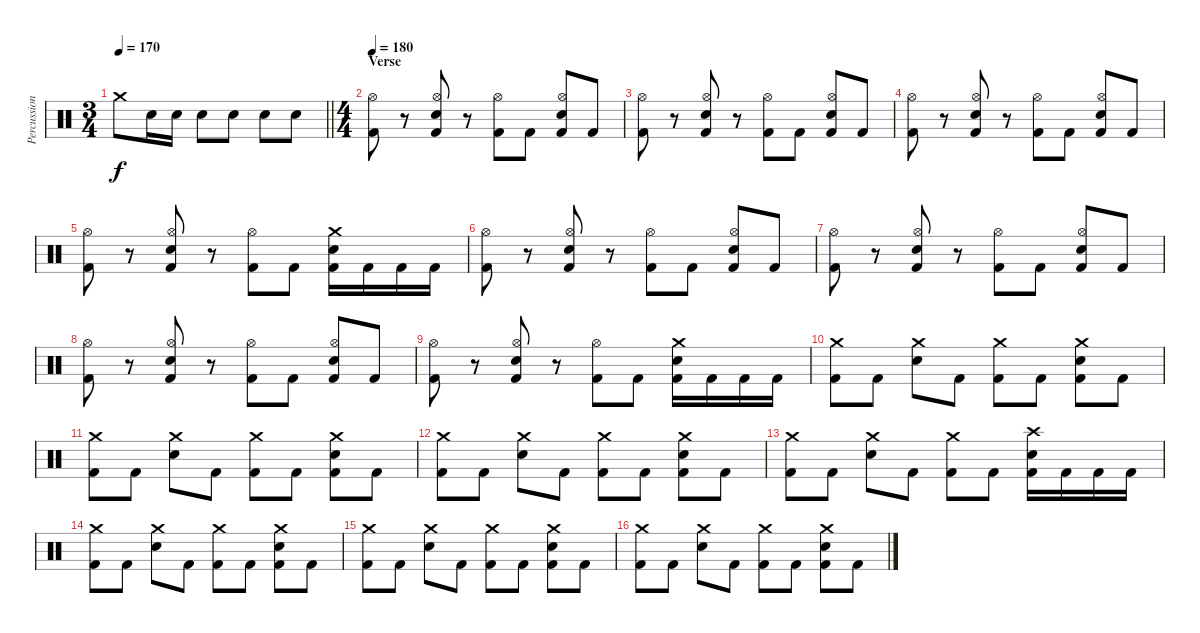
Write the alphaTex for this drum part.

\track ("Percussion" "Percussion") {instrument percussion}
\staff {score}
\articulation defaults
\ts (3 4)
\tempo 170
\clef neutral
\barLineRight lightlight
\ks c "Crash medium (hit)".8{dy f} "Electric Snare (hit)".16 "Electric Snare (hit)".16 "Electric Snare (hit)".8 "Electric Snare (hit)".8 "Electric Snare (hit)".8 "Electric Snare (hit)".8
|
\ts (4 4)
\section ("" "Verse")
\tempo 180
("Hi-Hat (open)" "Kick (hit) 2").8 r.8 ("Hi-Hat (open)" "Electric Snare (hit)" "Kick (hit) 2").8 r.8 ("Hi-Hat (open)" "Kick (hit) 2").8 "Kick (hit) 2".8 ("Hi-Hat (open)" "Electric Snare (hit)" "Kick (hit) 2").8 "Kick (hit) 2".8 |
("Hi-Hat (open)" "Kick (hit) 2").8 r.8 ("Hi-Hat (open)" "Electric Snare (hit)" "Kick (hit) 2").8 r.8 ("Hi-Hat (open)" "Kick (hit) 2").8 "Kick (hit) 2".8 ("Hi-Hat (open)" "Electric Snare (hit)" "Kick (hit) 2").8 "Kick (hit) 2".8 |
("Hi-Hat (open)" "Kick (hit) 2").8 r.8 ("Hi-Hat (open)" "Electric Snare (hit)" "Kick (hit) 2").8 r.8 ("Hi-Hat (open)" "Kick (hit) 2").8 "Kick (hit) 2".8 ("Hi-Hat (open)" "Electric Snare (hit)" "Kick (hit) 2").8 "Kick (hit) 2".8 |
("Hi-Hat (open)" "Kick (hit) 2").8 r.8 ("Hi-Hat (open)" "Electric Snare (hit)" "Kick (hit) 2").8 r.8 ("Hi-Hat (open)" "Kick (hit) 2").8 "Kick (hit) 2".8 ("Crash medium (hit)" "Electric Snare (hit)" "Kick (hit) 2").16 "Kick (hit) 2".16 "Kick (hit) 2".16 "Kick (hit) 2".16 |
("Hi-Hat (open)" "Kick (hit) 2").8 r.8 ("Hi-Hat (open)" "Electric Snare (hit)" "Kick (hit) 2").8 r.8 ("Hi-Hat (open)" "Kick (hit) 2").8 "Kick (hit) 2".8 ("Hi-Hat (open)" "Electric Snare (hit)" "Kick (hit) 2").8 "Kick (hit) 2".8 |
("Hi-Hat (open)" "Kick (hit) 2").8 r.8 ("Hi-Hat (open)" "Electric Snare (hit)" "Kick (hit) 2").8 r.8 ("Hi-Hat (open)" "Kick (hit) 2").8 "Kick (hit) 2".8 ("Hi-Hat (open)" "Electric Snare (hit)" "Kick (hit) 2").8 "Kick (hit) 2".8 |
("Hi-Hat (open)" "Kick (hit) 2").8 r.8 ("Hi-Hat (open)" "Electric Snare (hit)" "Kick (hit) 2").8 r.8 ("Hi-Hat (open)" "Kick (hit) 2").8 "Kick (hit) 2".8 ("Hi-Hat (open)" "Electric Snare (hit)" "Kick (hit) 2").8 "Kick (hit) 2".8 |
("Hi-Hat (open)" "Kick (hit) 2").8 r.8 ("Hi-Hat (open)" "Electric Snare (hit)" "Kick (hit) 2").8 r.8 ("Hi-Hat (open)" "Kick (hit) 2").8 "Kick (hit) 2".8 ("Crash medium (hit)" "Electric Snare (hit)" "Kick (hit) 2").16 "Kick (hit) 2".16 "Kick (hit) 2".16 "Kick (hit) 2".16 |
("Crash medium (hit)" "Kick (hit) 2").8 "Kick (hit) 2".8 ("Crash medium (hit)" "Electric Snare (hit)").8 "Kick (hit) 2".8 ("Crash medium (hit)" "Kick (hit) 2").8 "Kick (hit) 2".8 ("Crash medium (hit)" "Electric Snare (hit)" "Kick (hit) 2").8 "Kick (hit) 2".8 |
("Crash medium (hit)" "Kick (hit) 2").8 "Kick (hit) 2".8 ("Crash medium (hit)" "Electric Snare (hit)").8 "Kick (hit) 2".8 ("Crash medium (hit)" "Kick (hit) 2").8 "Kick (hit) 2".8 ("Crash medium (hit)" "Electric Snare (hit)" "Kick (hit) 2").8 "Kick (hit) 2".8 |
("Crash medium (hit)" "Kick (hit) 2").8 "Kick (hit) 2".8 ("Crash medium (hit)" "Electric Snare (hit)").8 "Kick (hit) 2".8 ("Crash medium (hit)" "Kick (hit) 2").8 "Kick (hit) 2".8 ("Crash medium (hit)" "Electric Snare (hit)" "Kick (hit) 2").8 "Kick (hit) 2".8 |
("Crash medium (hit)" "Kick (hit) 2").8 "Kick (hit) 2".8 ("Crash medium (hit)" "Electric Snare (hit)").8 "Kick (hit) 2".8 ("Crash medium (hit)" "Kick (hit) 2").8 "Kick (hit) 2".8 ("Crash high (hit)" "Electric Snare (hit)" "Kick (hit) 2").16 "Kick (hit) 2".16 "Kick (hit) 2".16 "Kick (hit) 2".16 |
("Crash medium (hit)" "Kick (hit) 2").8 "Kick (hit) 2".8 ("Crash medium (hit)" "Electric Snare (hit)").8 "Kick (hit) 2".8 ("Crash medium (hit)" "Kick (hit) 2").8 "Kick (hit) 2".8 ("Crash medium (hit)" "Electric Snare (hit)" "Kick (hit) 2").8 "Kick (hit) 2".8 |
("Crash medium (hit)" "Kick (hit) 2").8 "Kick (hit) 2".8 ("Crash medium (hit)" "Electric Snare (hit)").8 "Kick (hit) 2".8 ("Crash medium (hit)" "Kick (hit) 2").8 "Kick (hit) 2".8 ("Crash medium (hit)" "Electric Snare (hit)" "Kick (hit) 2").8 "Kick (hit) 2".8 |
("Crash medium (hit)" "Kick (hit) 2").8 "Kick (hit) 2".8 ("Crash medium (hit)" "Electric Snare (hit)").8 "Kick (hit) 2".8 ("Crash medium (hit)" "Kick (hit) 2").8 "Kick (hit) 2".8 ("Crash medium (hit)" "Electric Snare (hit)" "Kick (hit) 2").8 "Kick (hit) 2".8
